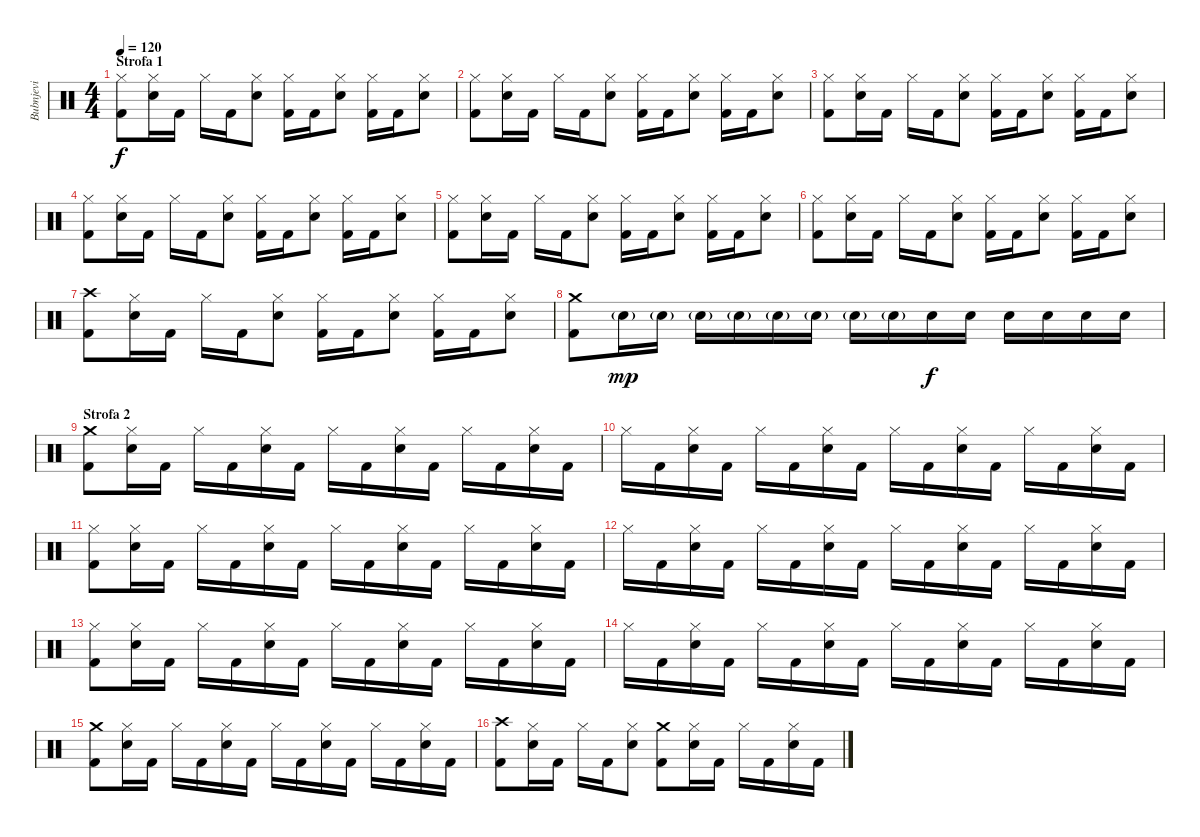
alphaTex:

\track ("Bubnjevi" "Bubnjevi") {instrument percussion}
\staff {score}
\articulation defaults
\ts (4 4)
\section ("" "Strofa 1")
\tempo 120
\clef neutral
\ks c
("Hi-Hat (closed)" "Kick (hit) 2").8{dy f} ("Hi-Hat (closed)" "Snare (hit) 2").16 "Kick (hit) 2".16 "Hi-Hat (closed)".16 "Kick (hit) 2".16 ("Hi-Hat (closed)" "Snare (hit) 2").8 ("Hi-Hat (closed)" "Kick (hit) 2").16 "Kick (hit) 2".16 ("Hi-Hat (closed)" "Snare (hit) 2").8 ("Hi-Hat (closed)" "Kick (hit) 2").16 "Kick (hit) 2".16 ("Hi-Hat (closed)" "Snare (hit) 2").8 |
("Hi-Hat (closed)" "Kick (hit) 2").8 ("Hi-Hat (closed)" "Snare (hit) 2").16 "Kick (hit) 2".16 "Hi-Hat (closed)".16 "Kick (hit) 2".16 ("Hi-Hat (closed)" "Snare (hit) 2").8 ("Hi-Hat (closed)" "Kick (hit) 2").16 "Kick (hit) 2".16 ("Hi-Hat (closed)" "Snare (hit) 2").8 ("Hi-Hat (closed)" "Kick (hit) 2").16 "Kick (hit) 2".16 ("Hi-Hat (closed)" "Snare (hit) 2").8 |
("Hi-Hat (closed)" "Kick (hit) 2").8 ("Hi-Hat (closed)" "Snare (hit) 2").16 "Kick (hit) 2".16 "Hi-Hat (closed)".16 "Kick (hit) 2".16 ("Hi-Hat (closed)" "Snare (hit) 2").8 ("Hi-Hat (closed)" "Kick (hit) 2").16 "Kick (hit) 2".16 ("Hi-Hat (closed)" "Snare (hit) 2").8 ("Hi-Hat (closed)" "Kick (hit) 2").16 "Kick (hit) 2".16 ("Hi-Hat (closed)" "Snare (hit) 2").8 |
("Hi-Hat (closed)" "Kick (hit) 2").8 ("Hi-Hat (closed)" "Snare (hit) 2").16 "Kick (hit) 2".16 "Hi-Hat (closed)".16 "Kick (hit) 2".16 ("Hi-Hat (closed)" "Snare (hit) 2").8 ("Hi-Hat (closed)" "Kick (hit) 2").16 "Kick (hit) 2".16 ("Hi-Hat (closed)" "Snare (hit) 2").8 ("Hi-Hat (closed)" "Kick (hit) 2").16 "Kick (hit) 2".16 ("Hi-Hat (closed)" "Snare (hit) 2").8 |
("Hi-Hat (closed)" "Kick (hit) 2").8 ("Hi-Hat (closed)" "Snare (hit) 2").16 "Kick (hit) 2".16 "Hi-Hat (closed)".16 "Kick (hit) 2".16 ("Hi-Hat (closed)" "Snare (hit) 2").8 ("Hi-Hat (closed)" "Kick (hit) 2").16 "Kick (hit) 2".16 ("Hi-Hat (closed)" "Snare (hit) 2").8 ("Hi-Hat (closed)" "Kick (hit) 2").16 "Kick (hit) 2".16 ("Hi-Hat (closed)" "Snare (hit) 2").8 |
("Hi-Hat (closed)" "Kick (hit) 2").8 ("Hi-Hat (closed)" "Snare (hit) 2").16 "Kick (hit) 2".16 "Hi-Hat (closed)".16 "Kick (hit) 2".16 ("Hi-Hat (closed)" "Snare (hit) 2").8 ("Hi-Hat (closed)" "Kick (hit) 2").16 "Kick (hit) 2".16 ("Hi-Hat (closed)" "Snare (hit) 2").8 ("Hi-Hat (closed)" "Kick (hit) 2").16 "Kick (hit) 2".16 ("Hi-Hat (closed)" "Snare (hit) 2").8 |
("Crash high (hit)" "Kick (hit) 2").8 ("Hi-Hat (closed)" "Snare (hit) 2").16 "Kick (hit) 2".16 "Hi-Hat (closed)".16 "Kick (hit) 2".16 ("Hi-Hat (closed)" "Snare (hit) 2").8 ("Hi-Hat (closed)" "Kick (hit) 2").16 "Kick (hit) 2".16 ("Hi-Hat (closed)" "Snare (hit) 2").8 ("Hi-Hat (closed)" "Kick (hit) 2").16 "Kick (hit) 2".16 ("Hi-Hat (closed)" "Snare (hit) 2").8 |
("Crash medium (hit)" "Kick (hit) 2").8 "Snare (hit) 2"{g}.16{dy mp} "Snare (hit) 2"{g}.16 "Snare (hit) 2"{g}.16 "Snare (hit) 2"{g}.16 "Snare (hit) 2"{g}.16 "Snare (hit) 2"{g}.16 "Snare (hit) 2"{g}.16 "Snare (hit) 2"{g}.16 "Snare (hit) 2".16{dy f} "Snare (hit) 2".16 "Snare (hit) 2".16 "Snare (hit) 2".16 "Snare (hit) 2".16 "Snare (hit) 2".16 |
\section ("" "Strofa 2")
("Crash medium (hit)" "Kick (hit) 2").8 ("Hi-Hat (closed)" "Snare (hit) 2").16 "Kick (hit) 2".16 "Hi-Hat (closed)".16 "Kick (hit) 2".16 ("Hi-Hat (closed)" "Snare (hit) 2").16 "Kick (hit) 2".16 "Hi-Hat (closed)".16 "Kick (hit) 2".16 ("Hi-Hat (closed)" "Snare (hit) 2").16 "Kick (hit) 2".16 "Hi-Hat (closed)".16 "Kick (hit) 2".16 ("Hi-Hat (closed)" "Snare (hit) 2").16 "Kick (hit) 2".16 |
"Hi-Hat (closed)".16 "Kick (hit) 2".16 ("Hi-Hat (closed)" "Snare (hit) 2").16 "Kick (hit) 2".16 "Hi-Hat (closed)".16 "Kick (hit) 2".16 ("Hi-Hat (closed)" "Snare (hit) 2").16 "Kick (hit) 2".16 "Hi-Hat (closed)".16 "Kick (hit) 2".16 ("Hi-Hat (closed)" "Snare (hit) 2").16 "Kick (hit) 2".16 "Hi-Hat (closed)".16 "Kick (hit) 2".16 ("Hi-Hat (closed)" "Snare (hit) 2").16 "Kick (hit) 2".16 |
("Hi-Hat (closed)" "Kick (hit) 2").8 ("Hi-Hat (closed)" "Snare (hit) 2").16 "Kick (hit) 2".16 "Hi-Hat (closed)".16 "Kick (hit) 2".16 ("Hi-Hat (closed)" "Snare (hit) 2").16 "Kick (hit) 2".16 "Hi-Hat (closed)".16 "Kick (hit) 2".16 ("Hi-Hat (closed)" "Snare (hit) 2").16 "Kick (hit) 2".16 "Hi-Hat (closed)".16 "Kick (hit) 2".16 ("Hi-Hat (closed)" "Snare (hit) 2").16 "Kick (hit) 2".16 |
"Hi-Hat (closed)".16 "Kick (hit) 2".16 ("Hi-Hat (closed)" "Snare (hit) 2").16 "Kick (hit) 2".16 "Hi-Hat (closed)".16 "Kick (hit) 2".16 ("Hi-Hat (closed)" "Snare (hit) 2").16 "Kick (hit) 2".16 "Hi-Hat (closed)".16 "Kick (hit) 2".16 ("Hi-Hat (closed)" "Snare (hit) 2").16 "Kick (hit) 2".16 "Hi-Hat (closed)".16 "Kick (hit) 2".16 ("Hi-Hat (closed)" "Snare (hit) 2").16 "Kick (hit) 2".16 |
("Hi-Hat (closed)" "Kick (hit) 2").8 ("Hi-Hat (closed)" "Snare (hit) 2").16 "Kick (hit) 2".16 "Hi-Hat (closed)".16 "Kick (hit) 2".16 ("Hi-Hat (closed)" "Snare (hit) 2").16 "Kick (hit) 2".16 "Hi-Hat (closed)".16 "Kick (hit) 2".16 ("Hi-Hat (closed)" "Snare (hit) 2").16 "Kick (hit) 2".16 "Hi-Hat (closed)".16 "Kick (hit) 2".16 ("Hi-Hat (closed)" "Snare (hit) 2").16 "Kick (hit) 2".16 |
"Hi-Hat (closed)".16 "Kick (hit) 2".16 ("Hi-Hat (closed)" "Snare (hit) 2").16 "Kick (hit) 2".16 "Hi-Hat (closed)".16 "Kick (hit) 2".16 ("Hi-Hat (closed)" "Snare (hit) 2").16 "Kick (hit) 2".16 "Hi-Hat (closed)".16 "Kick (hit) 2".16 ("Hi-Hat (closed)" "Snare (hit) 2").16 "Kick (hit) 2".16 "Hi-Hat (closed)".16 "Kick (hit) 2".16 ("Hi-Hat (closed)" "Snare (hit) 2").16 "Kick (hit) 2".16 |
("Crash medium (hit)" "Kick (hit) 2").8 ("Hi-Hat (closed)" "Snare (hit) 2").16 "Kick (hit) 2".16 "Hi-Hat (closed)".16 "Kick (hit) 2".16 ("Hi-Hat (closed)" "Snare (hit) 2").16 "Kick (hit) 2".16 "Hi-Hat (closed)".16 "Kick (hit) 2".16 ("Hi-Hat (closed)" "Snare (hit) 2").16 "Kick (hit) 2".16 "Hi-Hat (closed)".16 "Kick (hit) 2".16 ("Hi-Hat (closed)" "Snare (hit) 2").16 "Kick (hit) 2".16 |
("Crash high (hit)" "Kick (hit) 2").8 ("Hi-Hat (closed)" "Snare (hit) 2").16 "Kick (hit) 2".16 "Hi-Hat (closed)".16 "Kick (hit) 2".16 ("Hi-Hat (closed)" "Snare (hit) 2").8 ("Crash medium (hit)" "Kick (hit) 2").8 ("Hi-Hat (closed)" "Snare (hit) 2").16 "Kick (hit) 2".16 "Hi-Hat (closed)".16 "Kick (hit) 2".16 ("Hi-Hat (closed)" "Snare (hit) 2").16 "Kick (hit) 2".16
